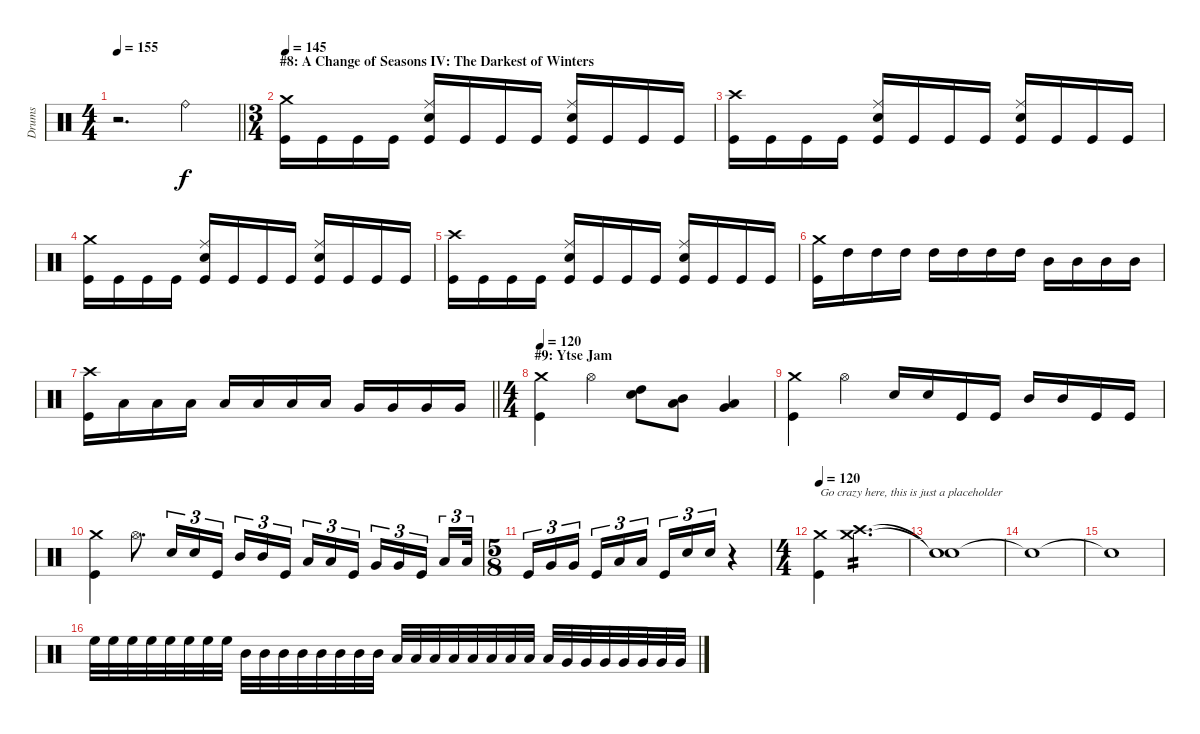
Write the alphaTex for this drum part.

\track ("Drums" "Drums") {instrument percussion}
\staff {score}
\articulation defaults
\ts (4 4)
\tempo 155
\clef neutral
\barLineRight lightlight
\ks c
r.2{d dy f} "Ride (bell)".4 |
\ts (3 4)
\section ("" "#8: A Change of Seasons IV: The Darkest of Winters")
\tempo 145
("Crash medium (hit)" "Kick (hit)").16 "Kick (hit)".16 "Kick (hit)".16 "Kick (hit)".16 ("Ride (middle)" "Snare (hit) 2" "Kick (hit)").16 "Kick (hit)".16 "Kick (hit)".16 "Kick (hit)".16 ("Ride (middle)" "Snare (hit) 2" "Kick (hit)").16 "Kick (hit)".16 "Kick (hit)".16 "Kick (hit)".16 |
("Crash high (hit)" "Kick (hit)").16 "Kick (hit)".16 "Kick (hit)".16 "Kick (hit)".16 ("Ride (middle)" "Snare (hit) 2" "Kick (hit)").16 "Kick (hit)".16 "Kick (hit)".16 "Kick (hit)".16 ("Ride (middle)" "Snare (hit) 2" "Kick (hit)").16 "Kick (hit)".16 "Kick (hit)".16 "Kick (hit)".16 |
("Crash medium (hit)" "Kick (hit)").16 "Kick (hit)".16 "Kick (hit)".16 "Kick (hit)".16 ("Ride (middle)" "Snare (hit) 2" "Kick (hit)").16 "Kick (hit)".16 "Kick (hit)".16 "Kick (hit)".16 ("Ride (middle)" "Snare (hit) 2" "Kick (hit)").16 "Kick (hit)".16 "Kick (hit)".16 "Kick (hit)".16 |
("Crash high (hit)" "Kick (hit)").16 "Kick (hit)".16 "Kick (hit)".16 "Kick (hit)".16 ("Ride (middle)" "Snare (hit) 2" "Kick (hit)").16 "Kick (hit)".16 "Kick (hit)".16 "Kick (hit)".16 ("Ride (middle)" "Snare (hit) 2" "Kick (hit)").16 "Kick (hit)".16 "Kick (hit)".16 "Kick (hit)".16 |
("Crash medium (hit)" "Kick (hit)").16 "High Tom (hit)".16 "High Tom (hit)".16 "High Tom (hit)".16 "High Tom (hit)".16 "High Tom (hit)".16 "High Tom (hit)".16 "High Tom (hit)".16 "Mid Tom (hit)".16 "Mid Tom (hit)".16 "Mid Tom (hit)".16 "Mid Tom (hit)".16 |
\barLineRight lightlight
("Crash high (hit)" "Kick (hit)").16 "Low Tom (hit)".16 "Low Tom (hit)".16 "Low Tom (hit)".16 "Low Tom (hit)".16 "Low Tom (hit)".16 "Low Tom (hit)".16 "Low Tom (hit)".16 "Very Low Tom (hit)".16 "Very Low Tom (hit)".16 "Very Low Tom (hit)".16 "Very Low Tom (hit)".16 |
\ts (4 4)
\section ("" "#9: Ytse Jam")
\tempo 120
("Crash medium (hit)" "Kick (hit)").4 "Hi-Hat (open)".4 ("High Tom (hit)" "Snare (hit) 2").8 ("Low Tom (hit)" "Mid Tom (hit)").8 ("Very Low Tom (hit)" "Low Tom (hit)").4 |
("Crash medium (hit)" "Kick (hit)").4 "Hi-Hat (open)".4 "Snare (hit) 2".16 "Snare (hit) 2".16 "Kick (hit)".16 "Kick (hit)".16 "Mid Tom (hit)".16 "Mid Tom (hit)".16 "Kick (hit)".16 "Kick (hit)".16 |
("Crash medium (hit)" "Kick (hit)").4 "Hi-Hat (open)".8{d} "Snare (hit) 2".16{tu (3 2)} "Snare (hit) 2".16{tu (3 2)} "Kick (hit)".16{tu (3 2) beam splitsecondary} "Mid Tom (hit)".16{tu (3 2)} "Mid Tom (hit)".16{tu (3 2)} "Kick (hit)".16{tu (3 2) beam splitsecondary} "Low Tom (hit)".16{tu (3 2)} "Low Tom (hit)".16{tu (3 2)} "Kick (hit)".16{tu (3 2) beam splitsecondary} "Very Low Tom (hit)".16{tu (3 2)} "Very Low Tom (hit)".16{tu (3 2)} "Kick (hit)".16{tu (3 2) beam splitsecondary} "Low Floor Tom (hit)".16{tu (3 2)} "Low Floor Tom (hit)".32{tu (3 2)} |
\ts (5 8)
"Kick (hit)".16{tu (3 2)} "Very Low Tom (hit)".16{tu (3 2)} "Very Low Tom (hit)".16{tu (3 2)} "Kick (hit)".16{tu (3 2)} "Low Tom (hit)".16{tu (3 2)} "Low Tom (hit)".16{tu (3 2)} "Kick (hit)".16{tu (3 2)} "Snare (hit) 2".16{tu (3 2)} "Snare (hit) 2".16{tu (3 2)} r.4 |
\ts (4 4)
\tempo 120
("Crash medium (hit)" "Kick (hit)").4{txt "Go crazy here, this is just a placeholder"} ("Crash high (hit)" "Crash medium (hit)").2{d tp 2} |
("Snare (hit)"{t} "Snare (hit)"{t}).1 |
"Snare (hit)"{t}.1 |
"Snare (hit)"{t}.1 |
"High Floor Tom (hit)".32 "High Floor Tom (hit)".32 "High Floor Tom (hit)".32 "High Floor Tom (hit)".32 "High Floor Tom (hit)".32 "High Floor Tom (hit)".32 "High Floor Tom (hit)".32 "High Floor Tom (hit)".32 "Mid Tom (hit)".32 "Mid Tom (hit)".32 "Mid Tom (hit)".32 "Mid Tom (hit)".32 "Mid Tom (hit)".32 "Mid Tom (hit)".32 "Mid Tom (hit)".32 "Mid Tom (hit)".32 "Low Tom (hit)".32 "Low Tom (hit)".32 "Low Tom (hit)".32 "Low Tom (hit)".32 "Low Tom (hit)".32 "Low Tom (hit)".32 "Low Tom (hit)".32 "Low Tom (hit)".32 "Low Tom (hit)".32 "Very Low Tom (hit)".32 "Very Low Tom (hit)".32 "Very Low Tom (hit)".32 "Very Low Tom (hit)".32 "Very Low Tom (hit)".32 "Very Low Tom (hit)".32 "Very Low Tom (hit)".32
